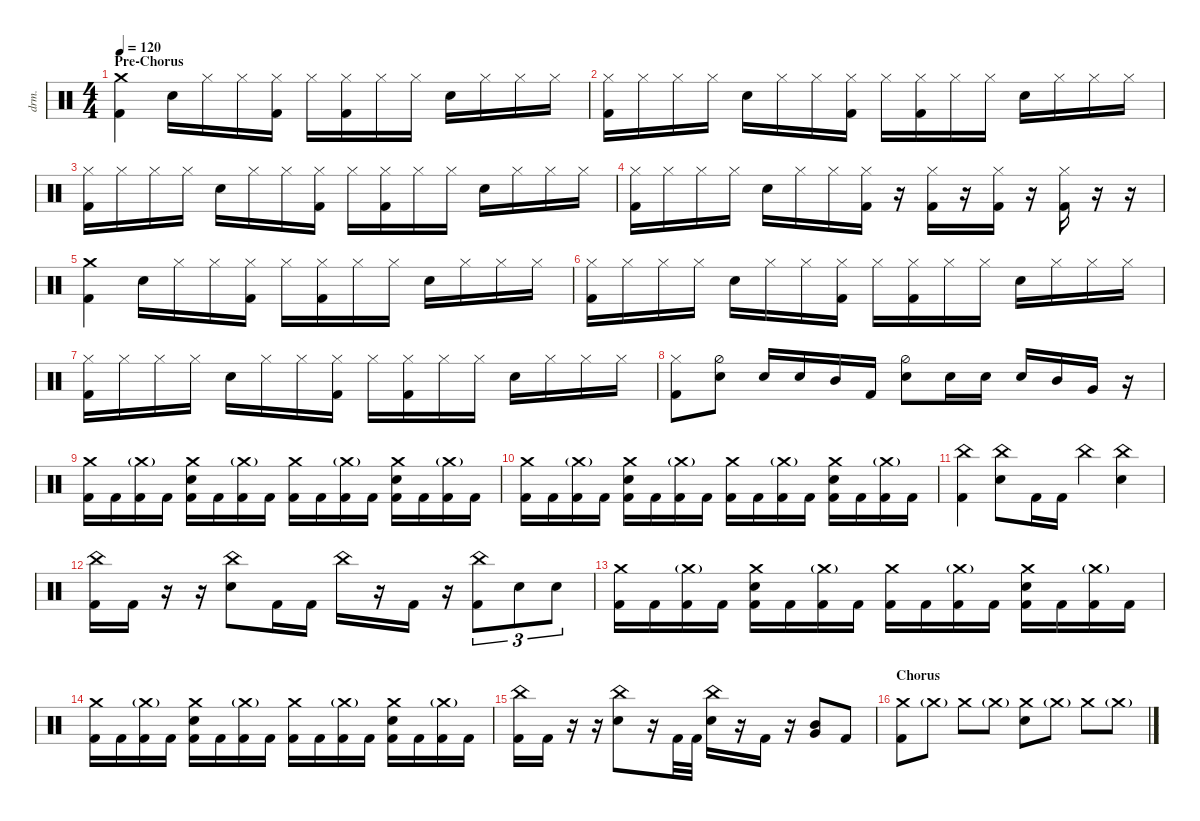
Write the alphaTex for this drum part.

\defaultSystemsLayout 4
\hideDynamics
\bracketExtendMode nobrackets
\track ("Drums - Mario" "drm.") {instrument percussion}
\staff {score}
\articulation defaults
\ts (4 4)
\section ("" "Pre-Chorus")
\tempo 120
\clef neutral
\ks c
("Crash medium (hit)" "Kick (hit) 2").4{dy ff} "Snare (hit) 2".16 "Hi-Hat (closed)".16 "Hi-Hat (closed)".16 ("Hi-Hat (closed)" "Kick (hit) 2").16 "Hi-Hat (closed)".16 ("Hi-Hat (closed)" "Kick (hit) 2").16 "Hi-Hat (closed)".16 "Hi-Hat (closed)".16 "Snare (hit) 2".16 "Hi-Hat (closed)".16 "Hi-Hat (closed)".16 "Hi-Hat (closed)".16 |
("Kick (hit) 2" "Hi-Hat (closed)").16 "Hi-Hat (closed)".16 "Hi-Hat (closed)".16 "Hi-Hat (closed)".16 "Snare (hit) 2".16 "Hi-Hat (closed)".16 "Hi-Hat (closed)".16 ("Hi-Hat (closed)" "Kick (hit) 2").16 "Hi-Hat (closed)".16 ("Hi-Hat (closed)" "Kick (hit) 2").16 "Hi-Hat (closed)".16 "Hi-Hat (closed)".16 "Snare (hit) 2".16 "Hi-Hat (closed)".16 "Hi-Hat (closed)".16 "Hi-Hat (closed)".16 |
("Kick (hit) 2" "Hi-Hat (closed)").16 "Hi-Hat (closed)".16 "Hi-Hat (closed)".16 "Hi-Hat (closed)".16 "Snare (hit) 2".16 "Hi-Hat (closed)".16 "Hi-Hat (closed)".16 ("Hi-Hat (closed)" "Kick (hit) 2").16 "Hi-Hat (closed)".16 ("Hi-Hat (closed)" "Kick (hit) 2").16 "Hi-Hat (closed)".16 "Hi-Hat (closed)".16 "Snare (hit) 2".16 "Hi-Hat (closed)".16 "Hi-Hat (closed)".16 "Hi-Hat (closed)".16 |
("Kick (hit) 2" "Hi-Hat (closed)").16 "Hi-Hat (closed)".16 "Hi-Hat (closed)".16 "Hi-Hat (closed)".16 "Snare (hit) 2".16 "Hi-Hat (closed)".16 "Hi-Hat (closed)".16 ("Hi-Hat (closed)" "Kick (hit) 2").16 r.16 ("Hi-Hat (closed)" "Kick (hit) 2").16 r.16 ("Hi-Hat (closed)" "Kick (hit) 2").16 r.16 ("Hi-Hat (closed)" "Kick (hit) 2").16 r.16 r.16 |
("Crash medium (hit)" "Kick (hit) 2").4 "Snare (hit) 2".16 "Hi-Hat (closed)".16 "Hi-Hat (closed)".16 ("Hi-Hat (closed)" "Kick (hit) 2").16 "Hi-Hat (closed)".16 ("Hi-Hat (closed)" "Kick (hit) 2").16 "Hi-Hat (closed)".16 "Hi-Hat (closed)".16 "Snare (hit) 2".16 "Hi-Hat (closed)".16 "Hi-Hat (closed)".16 "Hi-Hat (closed)".16 |
("Kick (hit) 2" "Hi-Hat (closed)").16 "Hi-Hat (closed)".16 "Hi-Hat (closed)".16 "Hi-Hat (closed)".16 "Snare (hit) 2".16 "Hi-Hat (closed)".16 "Hi-Hat (closed)".16 ("Hi-Hat (closed)" "Kick (hit) 2").16 "Hi-Hat (closed)".16 ("Hi-Hat (closed)" "Kick (hit) 2").16 "Hi-Hat (closed)".16 "Hi-Hat (closed)".16 "Snare (hit) 2".16 "Hi-Hat (closed)".16 "Hi-Hat (closed)".16 "Hi-Hat (closed)".16 |
("Kick (hit) 2" "Hi-Hat (closed)").16 "Hi-Hat (closed)".16 "Hi-Hat (closed)".16 "Hi-Hat (closed)".16 "Snare (hit) 2".16 "Hi-Hat (closed)".16 "Hi-Hat (closed)".16 ("Hi-Hat (closed)" "Kick (hit) 2").16 "Hi-Hat (closed)".16 ("Hi-Hat (closed)" "Kick (hit) 2").16 "Hi-Hat (closed)".16 "Hi-Hat (closed)".16 "Snare (hit) 2".16 "Hi-Hat (closed)".16 "Hi-Hat (closed)".16 "Hi-Hat (closed)".16 |
("Kick (hit) 2" "Hi-Hat (closed)").8 ("Snare (hit) 2" "Hi-Hat (half)").8 "Snare (hit) 2".16 "Snare (hit) 2".16 "Mid Tom (hit)".16 "Kick (hit) 2".16 ("Snare (hit) 2" "Hi-Hat (half)").8 "Snare (hit) 2".16 "Snare (hit) 2".16 "Snare (hit) 2".16 "Mid Tom (hit)".16 "Very Low Tom (hit)".16 r.16 |
("Kick (hit) 2" "Crash medium (hit)").16 "Kick (hit) 2".16 ("Kick (hit) 2" "Crash medium (hit)"{g}).16 "Kick (hit) 2".16 ("Kick (hit) 2" "Crash medium (hit)" "Snare (hit) 2").16 "Kick (hit) 2".16 ("Kick (hit) 2" "Crash medium (hit)"{g}).16 "Kick (hit) 2".16 ("Kick (hit) 2" "Crash medium (hit)").16 "Kick (hit) 2".16 ("Kick (hit) 2" "Crash medium (hit)"{g}).16 "Kick (hit) 2".16 ("Kick (hit) 2" "Crash medium (hit)" "Snare (hit) 2").16 "Kick (hit) 2".16 ("Kick (hit) 2" "Crash medium (hit)"{g}).16 "Kick (hit) 2".16 |
("Kick (hit) 2" "Crash medium (hit)").16 "Kick (hit) 2".16 ("Kick (hit) 2" "Crash medium (hit)"{g}).16 "Kick (hit) 2".16 ("Kick (hit) 2" "Crash medium (hit)" "Snare (hit) 2").16 "Kick (hit) 2".16 ("Kick (hit) 2" "Crash medium (hit)"{g}).16 "Kick (hit) 2".16 ("Kick (hit) 2" "Crash medium (hit)").16 "Kick (hit) 2".16 ("Kick (hit) 2" "Crash medium (hit)"{g}).16 "Kick (hit) 2".16 ("Kick (hit) 2" "Crash medium (hit)" "Snare (hit) 2").16 "Kick (hit) 2".16 ("Kick (hit) 2" "Crash medium (hit)"{g}).16 "Kick (hit) 2".16 |
("Kick (hit) 2" "China (hit)").4 ("China (hit)" "Snare (hit) 2").8 "Kick (hit) 2".16 "Kick (hit) 2".16 "China (hit)".4 ("Snare (hit) 2" "China (hit)").4 |
("Kick (hit) 2" "China (hit)").16 "Kick (hit) 2".16 r.16 r.16 ("China (hit)" "Snare (hit) 2").8 "Kick (hit) 2".16 "Kick (hit) 2".16 "China (hit)".16 r.16 "Kick (hit) 2".16 r.16 ("Kick (hit) 2" "China (hit)").8{tu (3 2)} "Snare (hit) 2".8{tu (3 2)} "Snare (hit) 2".8{tu (3 2)} |
("Kick (hit) 2" "Crash medium (hit)").16 "Kick (hit) 2".16 ("Kick (hit) 2" "Crash medium (hit)"{g}).16 "Kick (hit) 2".16 ("Kick (hit) 2" "Crash medium (hit)" "Snare (hit) 2").16 "Kick (hit) 2".16 ("Kick (hit) 2" "Crash medium (hit)"{g}).16 "Kick (hit) 2".16 ("Kick (hit) 2" "Crash medium (hit)").16 "Kick (hit) 2".16 ("Kick (hit) 2" "Crash medium (hit)"{g}).16 "Kick (hit) 2".16 ("Kick (hit) 2" "Crash medium (hit)" "Snare (hit) 2").16 "Kick (hit) 2".16 ("Kick (hit) 2" "Crash medium (hit)"{g}).16 "Kick (hit) 2".16 |
("Kick (hit) 2" "Crash medium (hit)").16 "Kick (hit) 2".16 ("Kick (hit) 2" "Crash medium (hit)"{g}).16 "Kick (hit) 2".16 ("Kick (hit) 2" "Crash medium (hit)" "Snare (hit) 2").16 "Kick (hit) 2".16 ("Kick (hit) 2" "Crash medium (hit)"{g}).16 "Kick (hit) 2".16 ("Kick (hit) 2" "Crash medium (hit)").16 "Kick (hit) 2".16 ("Kick (hit) 2" "Crash medium (hit)"{g}).16 "Kick (hit) 2".16 ("Kick (hit) 2" "Crash medium (hit)" "Snare (hit) 2").16 "Kick (hit) 2".16 ("Kick (hit) 2" "Crash medium (hit)"{g}).16 "Kick (hit) 2".16 |
("Kick (hit) 2" "China (hit)").16 "Kick (hit) 2".16 r.16 r.16 ("China (hit)" "Snare (hit) 2").8 r.16 "Kick (hit) 2".32 "Kick (hit) 2".32 ("China (hit)" "Snare (hit) 2").16 r.16 "Kick (hit) 2".16 r.16 ("Mid Tom (hit)" "Very Low Tom (hit)").8 "Kick (hit) 2".8 |
\section ("" "Chorus")
("Kick (hit) 2" "Crash medium (hit)").8 "Crash medium (hit)"{g}.8 "Crash medium (hit)".8 "Crash medium (hit)"{g}.8 ("Crash medium (hit)" "Snare (hit) 2").8 "Crash medium (hit)"{g}.8 "Crash medium (hit)".8 "Crash medium (hit)"{g}.8
